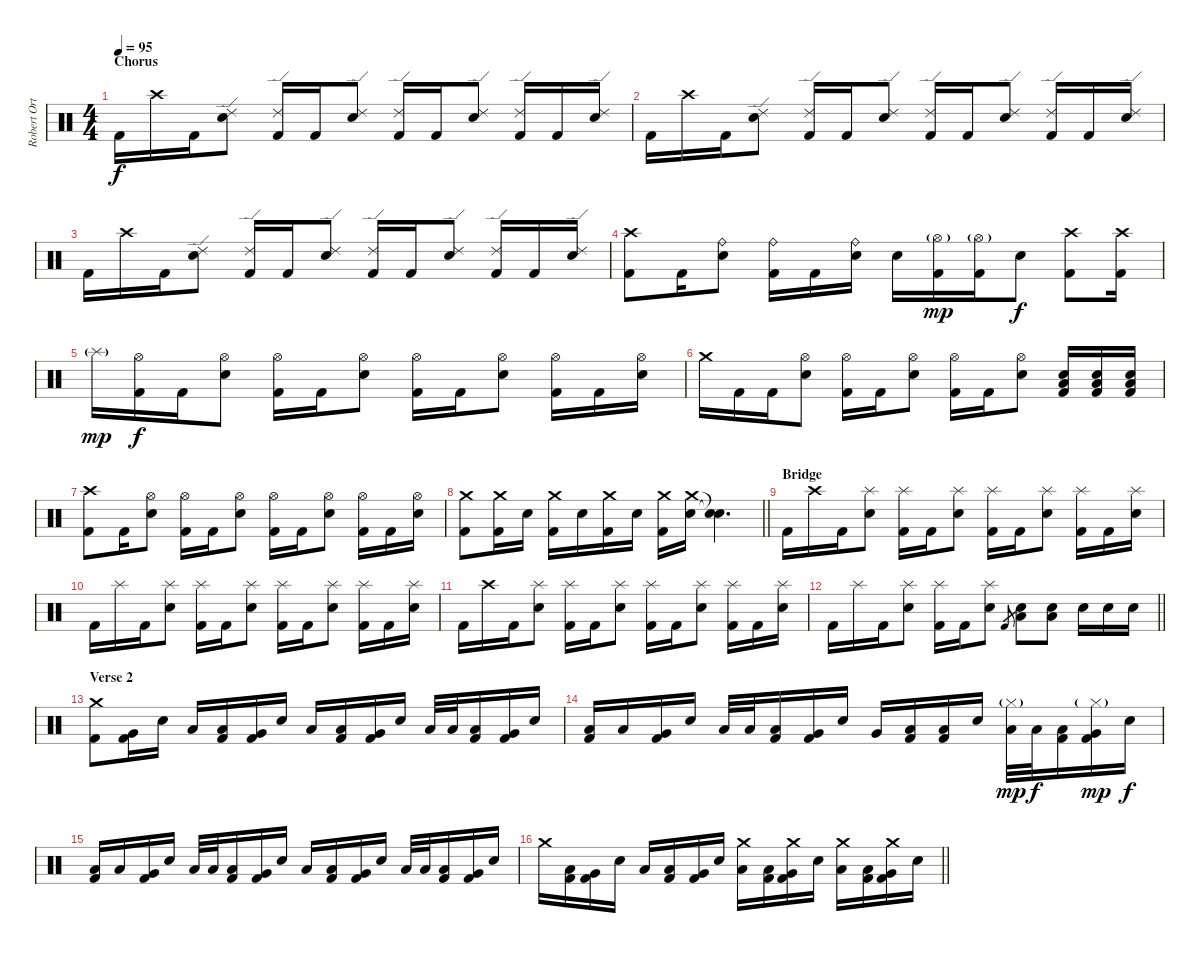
\track ("Robert Ortiz (Drums)" "Robert Ort") {instrument percussion}
\staff {score}
\articulation defaults
\ts (4 4)
\section ("" "Chorus")
\tempo 95
\clef neutral
\ks c "Kick (hit) 2".16{dy f} "Crash high (hit)".16 "Kick (hit) 2".16
("Ride (edge) 2" "Electric Snare (hit)").8 ("Ride (edge) 2" "Kick (hit) 2").16 "Kick (hit) 2".16 ("Ride (edge) 2" "Electric Snare (hit)").8 ("Ride (edge) 2" "Kick (hit) 2").16 "Kick (hit) 2".16 ("Ride (edge) 2" "Electric Snare (hit)").8 ("Ride (edge) 2" "Kick (hit) 2").16 "Kick (hit) 2".16 ("Ride (edge) 2" "Electric Snare (hit)").16 |
"Kick (hit) 2".16 "Crash high (hit)".16 "Kick (hit) 2".16 ("Ride (edge) 2" "Electric Snare (hit)").8 ("Ride (edge) 2" "Kick (hit) 2").16 "Kick (hit) 2".16 ("Ride (edge) 2" "Electric Snare (hit)").8 ("Ride (edge) 2" "Kick (hit) 2").16 "Kick (hit) 2".16 ("Ride (edge) 2" "Electric Snare (hit)").8 ("Ride (edge) 2" "Kick (hit) 2").16 "Kick (hit) 2".16 ("Ride (edge) 2" "Electric Snare (hit)").16 |
"Kick (hit) 2".16 "Crash high (hit)".16 "Kick (hit) 2".16 ("Ride (edge) 2" "Electric Snare (hit)").8 ("Ride (edge) 2" "Kick (hit) 2").16 "Kick (hit) 2".16 ("Ride (edge) 2" "Electric Snare (hit)").8 ("Ride (edge) 2" "Kick (hit) 2").16 "Kick (hit) 2".16 ("Ride (edge) 2" "Electric Snare (hit)").8 ("Ride (edge) 2" "Kick (hit) 2").16 "Kick (hit) 2".16 ("Ride (edge) 2" "Electric Snare (hit)").16 |
("Crash high (hit)" "Kick (hit) 2").8 "Kick (hit) 2".16 ("Ride (bell)" "Electric Snare (hit)").8 ("Ride (bell)" "Kick (hit) 2").16 "Kick (hit) 2".16 ("Ride (bell)" "Electric Snare (hit)").16 "Electric Snare (hit)".16 ("Hi-Hat (open)"{g} "Kick (hit) 2").16{dy mp} ("Hi-Hat (open)"{g} "Kick (hit) 2").16 "Electric Snare (hit)".8{dy f} ("Crash high (hit)" "Kick (hit) 2").8 ("Crash high (hit)" "Kick (hit) 2").16 |
"Splash (hit)"{g}.16{dy mp} ("Hi-Hat (open)" "Kick (hit) 2").16{dy f} "Kick (hit) 2".16 ("Hi-Hat (open)" "Electric Snare (hit)").8 ("Hi-Hat (open)" "Kick (hit) 2").16 "Kick (hit) 2".16 ("Hi-Hat (open)" "Electric Snare (hit)").8 ("Hi-Hat (open)" "Kick (hit) 2").16 "Kick (hit) 2".16 ("Hi-Hat (open)" "Electric Snare (hit)").8 ("Hi-Hat (open)" "Kick (hit) 2").16 "Kick (hit) 2".16 ("Hi-Hat (open)" "Electric Snare (hit)").16 |
"Crash medium (hit)".16 "Kick (hit) 2".16 "Kick (hit) 2".16 ("Hi-Hat (open)" "Electric Snare (hit)").8 ("Hi-Hat (open)" "Kick (hit) 2").16 "Kick (hit) 2".16 ("Hi-Hat (open)" "Electric Snare (hit)").8 ("Hi-Hat (open)" "Kick (hit) 2").16 "Kick (hit) 2".16 ("Hi-Hat (open)" "Electric Snare (hit)").8 ("Electric Snare (hit)" "Low Floor Tom (hit)" "Kick (hit) 2").16 ("Electric Snare (hit)" "Low Floor Tom (hit)" "Kick (hit) 2").16 ("Electric Snare (hit)" "Low Floor Tom (hit)" "Kick (hit) 2").16 |
("Crash high (hit)" "Kick (hit) 2").8 "Kick (hit) 2".16 ("Hi-Hat (open)" "Electric Snare (hit)").8 ("Hi-Hat (open)" "Kick (hit) 2").16 "Kick (hit) 2".16 ("Hi-Hat (open)" "Electric Snare (hit)").8 ("Hi-Hat (open)" "Kick (hit) 2").16 "Kick (hit) 2".16 ("Hi-Hat (open)" "Electric Snare (hit)").8 ("Hi-Hat (open)" "Kick (hit) 2").16 "Kick (hit) 2".16 ("Hi-Hat (open)" "Electric Snare (hit)").16 |
\barLineRight lightlight
("Crash medium (hit)" "Kick (hit) 2").8 ("Crash medium (hit)" "Kick (hit) 2").16 "Electric Snare (hit)".16 ("Crash medium (hit)" "Kick (hit) 2").16 "Electric Snare (hit)".16 ("Crash medium (hit)" "Kick (hit) 2").16 "Electric Snare (hit)".16 ("Crash medium (hit)" "Kick (hit) 2").16 ("Crash medium (hit)" "Electric Snare (hit)").16 ("Snare (hit)"{t} "Snare (hit)"{t}).4{d} |
\section ("" "Bridge")
"Kick (hit) 2".16 "Crash high (hit)".16 "Kick (hit) 2".16 ("Splash (hit)" "Electric Snare (hit)").8 ("Splash (hit)" "Kick (hit) 2").16 "Kick (hit) 2".16 ("Splash (hit)" "Electric Snare (hit)").8 ("Splash (hit)" "Kick (hit) 2").16 "Kick (hit) 2".16 ("Splash (hit)" "Electric Snare (hit)").8 ("Splash (hit)" "Kick (hit) 2").16 "Kick (hit) 2".16 ("Splash (hit)" "Electric Snare (hit)").16 |
"Kick (hit) 2".16 "Splash (hit)".16 "Kick (hit) 2".16 ("Splash (hit)" "Electric Snare (hit)").8 ("Splash (hit)" "Kick (hit) 2").16 "Kick (hit) 2".16 ("Splash (hit)" "Electric Snare (hit)").8 ("Splash (hit)" "Kick (hit) 2").16 "Kick (hit) 2".16 ("Splash (hit)" "Electric Snare (hit)").8 ("Splash (hit)" "Kick (hit) 2").16 "Kick (hit) 2".16 ("Splash (hit)" "Electric Snare (hit)").16 |
"Kick (hit) 2".16 "Crash high (hit)".16 "Kick (hit) 2".16 ("Splash (hit)" "Electric Snare (hit)").8 ("Splash (hit)" "Kick (hit) 2").16 "Kick (hit) 2".16 ("Splash (hit)" "Electric Snare (hit)").8 ("Splash (hit)" "Kick (hit) 2").16 "Kick (hit) 2".16 ("Splash (hit)" "Electric Snare (hit)").8 ("Splash (hit)" "Kick (hit) 2").16 "Kick (hit) 2".16 ("Splash (hit)" "Electric Snare (hit)").16 |
\barLineRight lightlight "Kick (hit) 2".16 "Splash (hit)".16 "Kick (hit) 2".16
("Splash (hit)" "Electric Snare (hit)").8 ("Splash (hit)" "Kick (hit) 2").16 "Kick (hit) 2".16 ("Splash (hit)" "Electric Snare (hit)").8 "Kick (hit) 2".8{gr} ("Electric Snare (hit)" "Low Floor Tom (hit)").8 ("Electric Snare (hit)" "Low Floor Tom (hit)").8 "Electric Snare (hit)".16 "Electric Snare (hit)".16 "Electric Snare (hit)".16 |
\section ("" "Verse 2")
("Crash medium (hit)" "Kick (hit) 2").8 ("Very Low Tom (hit)" "Kick (hit) 2").16 "Electric Snare (hit)".16 "Low Tom (hit)".16 ("Low Tom (hit)" "Kick (hit) 2").16 ("Very Low Tom (hit)" "Kick (hit) 2").16 "Electric Snare (hit)".16 "Low Tom (hit)".16 ("Low Tom (hit)" "Kick (hit) 2").16 ("Very Low Tom (hit)" "Kick (hit) 2").16 "Electric Snare (hit)".16 "Low Tom (hit)".32 "Low Tom (hit)".32 ("Low Tom (hit)" "Kick (hit) 2").16 ("Very Low Tom (hit)" "Kick (hit) 2").16 "Electric Snare (hit)".16 |
("Low Tom (hit)" "Kick (hit) 2").16 "Low Tom (hit)".16 ("Very Low Tom (hit)" "Kick (hit) 2").16 "Electric Snare (hit)".16 "Low Tom (hit)".32 "Low Tom (hit)".32 ("Low Tom (hit)" "Kick (hit) 2").16 ("Very Low Tom (hit)" "Kick (hit) 2").16 "Electric Snare (hit)".16 "Very Low Tom (hit)".16 ("Low Floor Tom (hit)" "Kick (hit) 2").16 ("Low Floor Tom (hit)" "Kick (hit) 2").16 "Electric Snare (hit)".16 ("Low Tom (hit)" "Hi-Hat (closed)"{g}).32{dy mp} "Low Tom (hit)".32{dy f} ("Low Tom (hit)" "Kick (hit) 2").16 ("Very Low Tom (hit)" "Hi-Hat (closed)"{g} "Kick (hit) 2").16{dy mp} "Electric Snare (hit)".16{dy f} |
("Low Tom (hit)" "Kick (hit) 2").16 "Low Tom (hit)".16 ("Very Low Tom (hit)" "Kick (hit) 2").16 "Electric Snare (hit)".16 "Low Tom (hit)".32 "Low Tom (hit)".32 ("Low Tom (hit)" "Kick (hit) 2").16 ("Very Low Tom (hit)" "Kick (hit) 2").16 "Electric Snare (hit)".16 "Low Tom (hit)".16 ("Low Tom (hit)" "Kick (hit) 2").16 ("Very Low Tom (hit)" "Kick (hit) 2").16 "Electric Snare (hit)".16 "Low Tom (hit)".32 "Low Tom (hit)".32 ("Low Tom (hit)" "Kick (hit) 2").16 ("Very Low Tom (hit)" "Kick (hit) 2").16 "Electric Snare (hit)".16 |
\barLineRight lightlight "Crash medium (hit)".16
("Low Tom (hit)" "Kick (hit) 2").16 ("Very Low Tom (hit)" "Kick (hit) 2").16 "Electric Snare (hit)".16 "Low Tom (hit)".16 ("Low Tom (hit)" "Kick (hit) 2").16 ("Very Low Tom (hit)" "Kick (hit) 2").16 "Electric Snare (hit)".16 ("Crash medium (hit)" "Low Tom (hit)").16 ("Low Tom (hit)" "Kick (hit) 2").16 ("Crash medium (hit)" "Very Low Tom (hit)" "Kick (hit) 2").16 "Electric Snare (hit)".16 ("Crash medium (hit)" "Low Tom (hit)").16 ("Low Tom (hit)" "Kick (hit) 2").16 ("Crash medium (hit)" "Very Low Tom (hit)" "Kick (hit) 2").16 "Electric Snare (hit)".16
